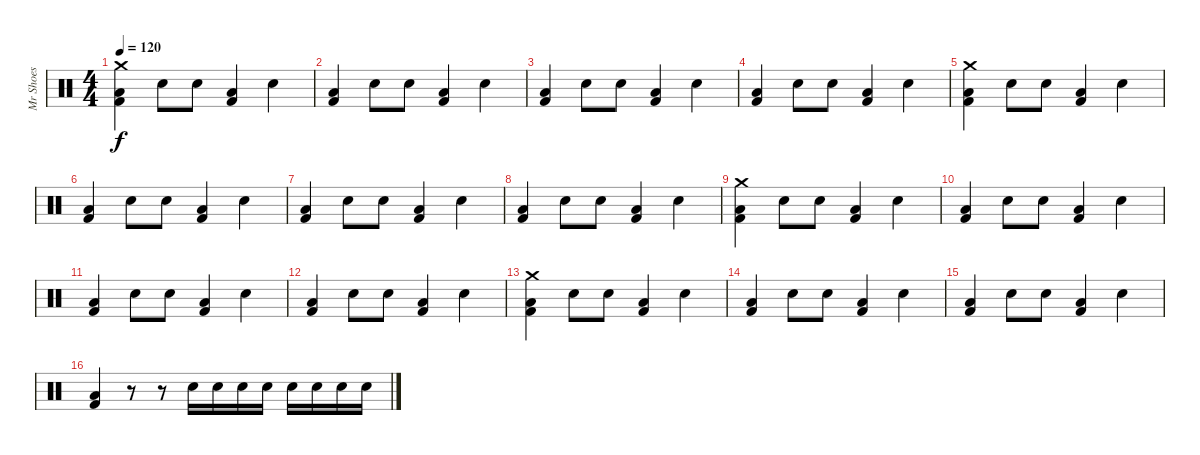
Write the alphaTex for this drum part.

\track ("Mr Shoes" "Mr Shoes") {instrument percussion}
\staff {score}
\articulation defaults
\ts (4 4)
\tempo 120
\clef neutral
\ks c
("Crash medium (hit)" "Kick (hit) 2" "Low Floor Tom (hit)").4{dy f} "Electric Snare (hit)".8 "Electric Snare (hit)".8 ("Kick (hit) 2" "Low Floor Tom (hit)").4 "Electric Snare (hit)".4 |
("Kick (hit) 2" "Low Floor Tom (hit)").4 "Electric Snare (hit)".8 "Electric Snare (hit)".8 ("Kick (hit) 2" "Low Floor Tom (hit)").4 "Electric Snare (hit)".4 |
("Kick (hit) 2" "Low Floor Tom (hit)").4 "Electric Snare (hit)".8 "Electric Snare (hit)".8 ("Kick (hit) 2" "Low Floor Tom (hit)").4 "Electric Snare (hit)".4 |
("Kick (hit) 2" "Low Floor Tom (hit)").4 "Electric Snare (hit)".8 "Electric Snare (hit)".8 ("Kick (hit) 2" "Low Floor Tom (hit)").4 "Electric Snare (hit)".4 |
("Crash medium (hit)" "Kick (hit) 2" "Low Floor Tom (hit)").4 "Electric Snare (hit)".8 "Electric Snare (hit)".8 ("Kick (hit) 2" "Low Floor Tom (hit)").4 "Electric Snare (hit)".4 |
("Kick (hit) 2" "Low Floor Tom (hit)").4 "Electric Snare (hit)".8 "Electric Snare (hit)".8 ("Kick (hit) 2" "Low Floor Tom (hit)").4 "Electric Snare (hit)".4 |
("Kick (hit) 2" "Low Floor Tom (hit)").4 "Electric Snare (hit)".8 "Electric Snare (hit)".8 ("Kick (hit) 2" "Low Floor Tom (hit)").4 "Electric Snare (hit)".4 |
("Kick (hit) 2" "Low Floor Tom (hit)").4 "Electric Snare (hit)".8 "Electric Snare (hit)".8 ("Kick (hit) 2" "Low Floor Tom (hit)").4 "Electric Snare (hit)".4 |
("Crash medium (hit)" "Kick (hit) 2" "Low Floor Tom (hit)").4 "Electric Snare (hit)".8 "Electric Snare (hit)".8 ("Kick (hit) 2" "Low Floor Tom (hit)").4 "Electric Snare (hit)".4 |
("Kick (hit) 2" "Low Floor Tom (hit)").4 "Electric Snare (hit)".8 "Electric Snare (hit)".8 ("Kick (hit) 2" "Low Floor Tom (hit)").4 "Electric Snare (hit)".4 |
("Kick (hit) 2" "Low Floor Tom (hit)").4 "Electric Snare (hit)".8 "Electric Snare (hit)".8 ("Kick (hit) 2" "Low Floor Tom (hit)").4 "Electric Snare (hit)".4 |
("Kick (hit) 2" "Low Floor Tom (hit)").4 "Electric Snare (hit)".8 "Electric Snare (hit)".8 ("Kick (hit) 2" "Low Floor Tom (hit)").4 "Electric Snare (hit)".4 |
("Crash medium (hit)" "Kick (hit) 2" "Low Floor Tom (hit)").4 "Electric Snare (hit)".8 "Electric Snare (hit)".8 ("Kick (hit) 2" "Low Floor Tom (hit)").4 "Electric Snare (hit)".4 |
("Kick (hit) 2" "Low Floor Tom (hit)").4 "Electric Snare (hit)".8 "Electric Snare (hit)".8 ("Kick (hit) 2" "Low Floor Tom (hit)").4 "Electric Snare (hit)".4 |
("Kick (hit) 2" "Low Floor Tom (hit)").4 "Electric Snare (hit)".8 "Electric Snare (hit)".8 ("Kick (hit) 2" "Low Floor Tom (hit)").4 "Electric Snare (hit)".4 |
("Kick (hit) 2" "Low Floor Tom (hit)").4 r.8 r.8 "Electric Snare (hit)".16 "Electric Snare (hit)".16 "Electric Snare (hit)".16 "Electric Snare (hit)".16 "Electric Snare (hit)".16 "Electric Snare (hit)".16 "Electric Snare (hit)".16 "Electric Snare (hit)".16
